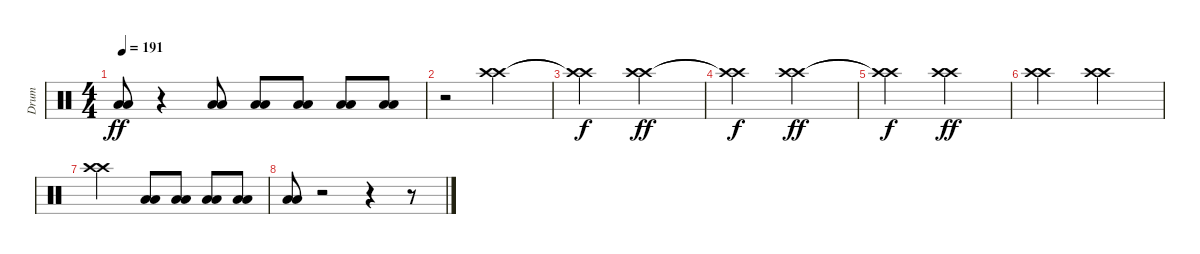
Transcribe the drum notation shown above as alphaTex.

\track ("Drum" "Drum") {instrument percussion}
\staff {score}
\articulation defaults
\ts (4 4)
\tempo 191
\clef neutral
\ks c
("Low Floor Tom (hit)" "Low Floor Tom (hit)").8{dy ff} r.4 ("Low Floor Tom (hit)" "Low Floor Tom (hit)").8 ("Low Floor Tom (hit)" "Low Floor Tom (hit)").8 ("Low Floor Tom (hit)" "Low Floor Tom (hit)").8 ("Low Floor Tom (hit)" "Low Floor Tom (hit)").8 ("Low Floor Tom (hit)" "Low Floor Tom (hit)").8 |
r.2 ("Crash high (hit)" "Crash high (hit)").2 |
("Crash high (hit)"{t} "Crash high (hit)"{t}).2{dy f} ("Crash high (hit)" "Crash high (hit)").2{dy ff} |
("Crash high (hit)"{t} "Crash high (hit)"{t}).2{dy f} ("Crash high (hit)" "Crash high (hit)").2{dy ff} |
("Crash high (hit)"{t} "Crash high (hit)"{t}).2{dy f} ("Crash high (hit)" "Crash high (hit)").2{dy ff} |
("Crash high (hit)" "Crash high (hit)").2 ("Crash high (hit)" "Crash high (hit)").2 |
("Crash high (hit)" "Crash high (hit)").2 ("Low Floor Tom (hit)" "Low Floor Tom (hit)").8 ("Low Floor Tom (hit)" "Low Floor Tom (hit)").8 ("Low Floor Tom (hit)" "Low Floor Tom (hit)").8 ("Low Floor Tom (hit)" "Low Floor Tom (hit)").8 |
("Low Floor Tom (hit)" "Low Floor Tom (hit)").8 r.2 r.4 r.8
